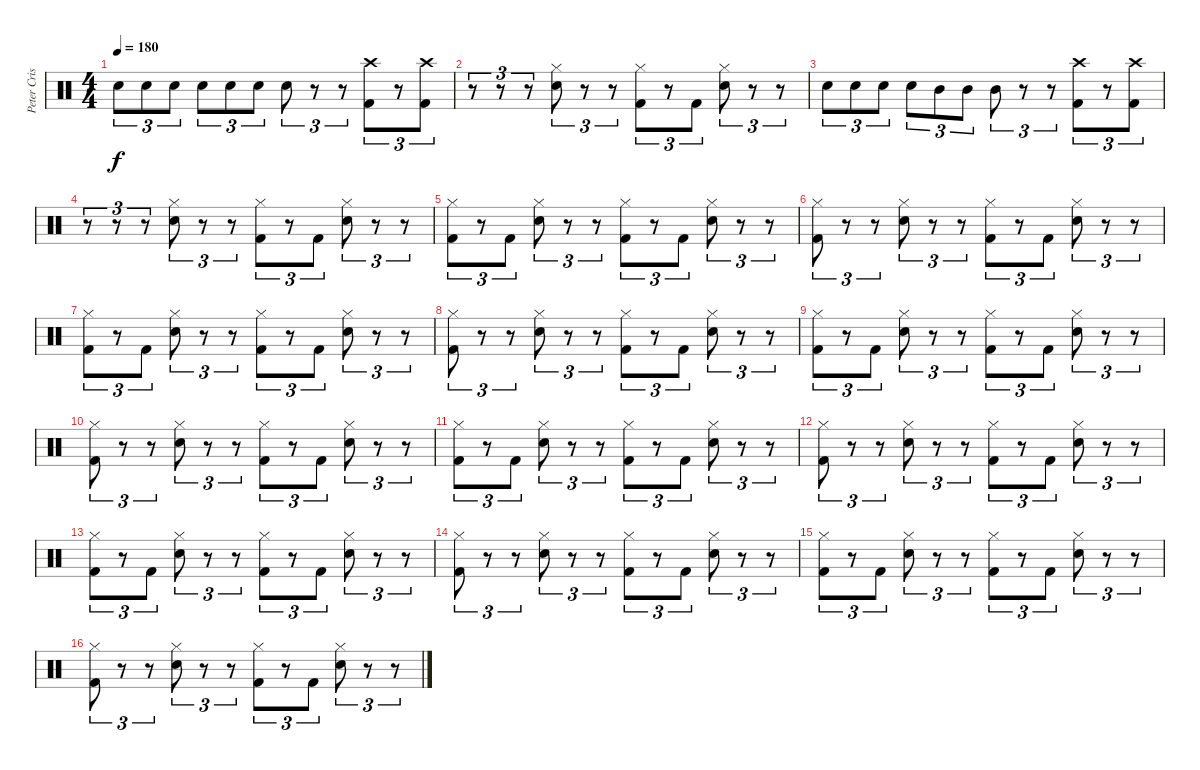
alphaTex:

\track ("Peter Criss" "Peter Cris") {instrument percussion}
\staff {score}
\articulation defaults
\ts (4 4)
\tempo 180
\clef neutral
\ks c "Electric Snare (hit)".8{tu (3 2) dy f} "Electric Snare (hit)".8{tu (3 2)} "Electric Snare (hit)".8{tu (3 2)} "Electric Snare (hit)".8{tu (3 2)} "Electric Snare (hit)".8{tu (3 2)} "Electric Snare (hit)".8{tu (3 2)} "Electric Snare (hit)".8{tu (3 2)}
r.8{tu (3 2)} r.8{tu (3 2)} ("Crash high (hit)" "Kick (hit) 2").8{tu (3 2)} r.8{tu (3 2)} ("Crash high (hit)" "Kick (hit) 2").8{tu (3 2)} |
r.8{tu (3 2)} r.8{tu (3 2)} r.8{tu (3 2)} ("Hi-Hat (closed)" "Electric Snare (hit)").8{tu (3 2)} r.8{tu (3 2)} r.8{tu (3 2)} ("Hi-Hat (closed)" "Kick (hit) 2").8{tu (3 2)} r.8{tu (3 2)} "Kick (hit) 2".8{tu (3 2)} ("Hi-Hat (closed)" "Electric Snare (hit)").8{tu (3 2)} r.8{tu (3 2)} r.8{tu (3 2)} |
"Electric Snare (hit)".8{tu (3 2)} "Electric Snare (hit)".8{tu (3 2)} "Electric Snare (hit)".8{tu (3 2)} "Electric Snare (hit)".8{tu (3 2)} "Mid Tom (hit)".8{tu (3 2)} "Mid Tom (hit)".8{tu (3 2)} "Mid Tom (hit)".8{tu (3 2)} r.8{tu (3 2)} r.8{tu (3 2)} ("Crash high (hit)" "Kick (hit) 2").8{tu (3 2)} r.8{tu (3 2)} ("Crash high (hit)" "Kick (hit) 2").8{tu (3 2)} |
r.8{tu (3 2)} r.8{tu (3 2)} r.8{tu (3 2)} ("Hi-Hat (closed)" "Electric Snare (hit)").8{tu (3 2)} r.8{tu (3 2)} r.8{tu (3 2)} ("Hi-Hat (closed)" "Kick (hit) 2").8{tu (3 2)} r.8{tu (3 2)} "Kick (hit) 2".8{tu (3 2)} ("Hi-Hat (closed)" "Electric Snare (hit)").8{tu (3 2)} r.8{tu (3 2)} r.8{tu (3 2)} |
("Hi-Hat (closed)" "Kick (hit) 2").8{tu (3 2)} r.8{tu (3 2)} "Kick (hit) 2".8{tu (3 2)} ("Hi-Hat (closed)" "Electric Snare (hit)").8{tu (3 2)} r.8{tu (3 2)} r.8{tu (3 2)} ("Hi-Hat (closed)" "Kick (hit) 2").8{tu (3 2)} r.8{tu (3 2)} "Kick (hit) 2".8{tu (3 2)} ("Hi-Hat (closed)" "Electric Snare (hit)").8{tu (3 2)} r.8{tu (3 2)} r.8{tu (3 2)} |
("Hi-Hat (closed)" "Kick (hit) 2").8{tu (3 2)} r.8{tu (3 2)} r.8{tu (3 2)} ("Hi-Hat (closed)" "Electric Snare (hit)").8{tu (3 2)} r.8{tu (3 2)} r.8{tu (3 2)} ("Hi-Hat (closed)" "Kick (hit) 2").8{tu (3 2)} r.8{tu (3 2)} "Kick (hit) 2".8{tu (3 2)} ("Hi-Hat (closed)" "Electric Snare (hit)").8{tu (3 2)} r.8{tu (3 2)} r.8{tu (3 2)} |
("Hi-Hat (closed)" "Kick (hit) 2").8{tu (3 2)} r.8{tu (3 2)} "Kick (hit) 2".8{tu (3 2)} ("Hi-Hat (closed)" "Electric Snare (hit)").8{tu (3 2)} r.8{tu (3 2)} r.8{tu (3 2)} ("Hi-Hat (closed)" "Kick (hit) 2").8{tu (3 2)} r.8{tu (3 2)} "Kick (hit) 2".8{tu (3 2)} ("Hi-Hat (closed)" "Electric Snare (hit)").8{tu (3 2)} r.8{tu (3 2)} r.8{tu (3 2)} |
("Hi-Hat (closed)" "Kick (hit) 2").8{tu (3 2)} r.8{tu (3 2)} r.8{tu (3 2)} ("Hi-Hat (closed)" "Electric Snare (hit)").8{tu (3 2)} r.8{tu (3 2)} r.8{tu (3 2)} ("Hi-Hat (closed)" "Kick (hit) 2").8{tu (3 2)} r.8{tu (3 2)} "Kick (hit) 2".8{tu (3 2)} ("Hi-Hat (closed)" "Electric Snare (hit)").8{tu (3 2)} r.8{tu (3 2)} r.8{tu (3 2)} |
("Hi-Hat (closed)" "Kick (hit) 2").8{tu (3 2)} r.8{tu (3 2)} "Kick (hit) 2".8{tu (3 2)} ("Hi-Hat (closed)" "Electric Snare (hit)").8{tu (3 2)} r.8{tu (3 2)} r.8{tu (3 2)} ("Hi-Hat (closed)" "Kick (hit) 2").8{tu (3 2)} r.8{tu (3 2)} "Kick (hit) 2".8{tu (3 2)} ("Hi-Hat (closed)" "Electric Snare (hit)").8{tu (3 2)} r.8{tu (3 2)} r.8{tu (3 2)} |
("Hi-Hat (closed)" "Kick (hit) 2").8{tu (3 2)} r.8{tu (3 2)} r.8{tu (3 2)} ("Hi-Hat (closed)" "Electric Snare (hit)").8{tu (3 2)} r.8{tu (3 2)} r.8{tu (3 2)} ("Hi-Hat (closed)" "Kick (hit) 2").8{tu (3 2)} r.8{tu (3 2)} "Kick (hit) 2".8{tu (3 2)} ("Hi-Hat (closed)" "Electric Snare (hit)").8{tu (3 2)} r.8{tu (3 2)} r.8{tu (3 2)} |
("Hi-Hat (closed)" "Kick (hit) 2").8{tu (3 2)} r.8{tu (3 2)} "Kick (hit) 2".8{tu (3 2)} ("Hi-Hat (closed)" "Electric Snare (hit)").8{tu (3 2)} r.8{tu (3 2)} r.8{tu (3 2)} ("Hi-Hat (closed)" "Kick (hit) 2").8{tu (3 2)} r.8{tu (3 2)} "Kick (hit) 2".8{tu (3 2)} ("Hi-Hat (closed)" "Electric Snare (hit)").8{tu (3 2)} r.8{tu (3 2)} r.8{tu (3 2)} |
("Hi-Hat (closed)" "Kick (hit) 2").8{tu (3 2)} r.8{tu (3 2)} r.8{tu (3 2)} ("Hi-Hat (closed)" "Electric Snare (hit)").8{tu (3 2)} r.8{tu (3 2)} r.8{tu (3 2)} ("Hi-Hat (closed)" "Kick (hit) 2").8{tu (3 2)} r.8{tu (3 2)} "Kick (hit) 2".8{tu (3 2)} ("Hi-Hat (closed)" "Electric Snare (hit)").8{tu (3 2)} r.8{tu (3 2)} r.8{tu (3 2)} |
("Hi-Hat (closed)" "Kick (hit) 2").8{tu (3 2)} r.8{tu (3 2)} "Kick (hit) 2".8{tu (3 2)} ("Hi-Hat (closed)" "Electric Snare (hit)").8{tu (3 2)} r.8{tu (3 2)} r.8{tu (3 2)} ("Hi-Hat (closed)" "Kick (hit) 2").8{tu (3 2)} r.8{tu (3 2)} "Kick (hit) 2".8{tu (3 2)} ("Hi-Hat (closed)" "Electric Snare (hit)").8{tu (3 2)} r.8{tu (3 2)} r.8{tu (3 2)} |
("Hi-Hat (closed)" "Kick (hit) 2").8{tu (3 2)} r.8{tu (3 2)} r.8{tu (3 2)} ("Hi-Hat (closed)" "Electric Snare (hit)").8{tu (3 2)} r.8{tu (3 2)} r.8{tu (3 2)} ("Hi-Hat (closed)" "Kick (hit) 2").8{tu (3 2)} r.8{tu (3 2)} "Kick (hit) 2".8{tu (3 2)} ("Hi-Hat (closed)" "Electric Snare (hit)").8{tu (3 2)} r.8{tu (3 2)} r.8{tu (3 2)} |
("Hi-Hat (closed)" "Kick (hit) 2").8{tu (3 2)} r.8{tu (3 2)} "Kick (hit) 2".8{tu (3 2)} ("Hi-Hat (closed)" "Electric Snare (hit)").8{tu (3 2)} r.8{tu (3 2)} r.8{tu (3 2)} ("Hi-Hat (closed)" "Kick (hit) 2").8{tu (3 2)} r.8{tu (3 2)} "Kick (hit) 2".8{tu (3 2)} ("Hi-Hat (closed)" "Electric Snare (hit)").8{tu (3 2)} r.8{tu (3 2)} r.8{tu (3 2)} |
("Hi-Hat (closed)" "Kick (hit) 2").8{tu (3 2)} r.8{tu (3 2)} r.8{tu (3 2)} ("Hi-Hat (closed)" "Electric Snare (hit)").8{tu (3 2)} r.8{tu (3 2)} r.8{tu (3 2)} ("Hi-Hat (closed)" "Kick (hit) 2").8{tu (3 2)} r.8{tu (3 2)} "Kick (hit) 2".8{tu (3 2)} ("Hi-Hat (closed)" "Electric Snare (hit)").8{tu (3 2)} r.8{tu (3 2)} r.8{tu (3 2)}
